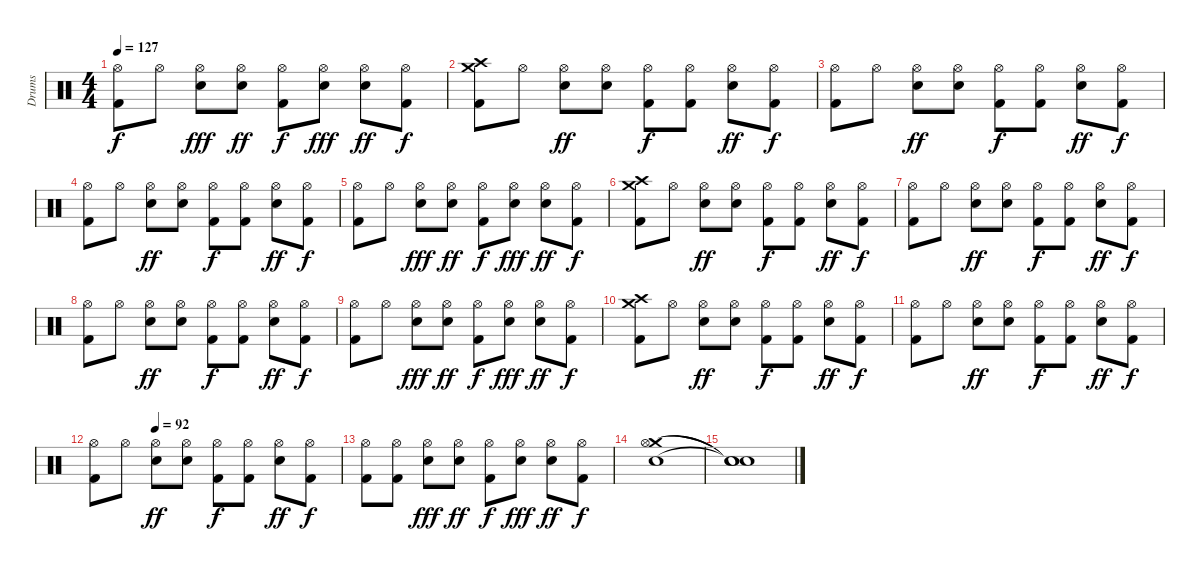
\track ("Drums" "Drums") {instrument percussion}
\staff {score}
\articulation defaults
\ts (4 4)
\tempo 127
\clef neutral
\ks c
("Hi-Hat (open)" "Kick (hit) 2").8{dy f} "Hi-Hat (open)".8 ("Hi-Hat (open)" "Electric Snare (hit)").8{dy fff} ("Hi-Hat (open)" "Electric Snare (hit)").8{dy ff} ("Hi-Hat (open)" "Kick (hit) 2").8{dy f} ("Hi-Hat (open)" "Electric Snare (hit)").8{dy fff} ("Hi-Hat (open)" "Electric Snare (hit)").8{dy ff} ("Hi-Hat (open)" "Kick (hit) 2").8{dy f} |
("Crash high (hit)" "Crash medium (hit)" "Kick (hit) 2").8 "Hi-Hat (open)".8 ("Hi-Hat (open)" "Electric Snare (hit)").8{dy ff} ("Hi-Hat (open)" "Electric Snare (hit)").8 ("Hi-Hat (open)" "Kick (hit) 2").8{dy f} ("Hi-Hat (open)" "Kick (hit) 2").8 ("Hi-Hat (open)" "Electric Snare (hit)").8{dy ff} ("Hi-Hat (open)" "Kick (hit) 2").8{dy f} |
("Hi-Hat (open)" "Kick (hit) 2").8 "Hi-Hat (open)".8 ("Hi-Hat (open)" "Electric Snare (hit)").8{dy ff} ("Hi-Hat (open)" "Electric Snare (hit)").8 ("Hi-Hat (open)" "Kick (hit) 2").8{dy f} ("Hi-Hat (open)" "Kick (hit) 2").8 ("Hi-Hat (open)" "Electric Snare (hit)").8{dy ff} ("Hi-Hat (open)" "Kick (hit) 2").8{dy f} |
("Hi-Hat (open)" "Kick (hit) 2").8 "Hi-Hat (open)".8 ("Hi-Hat (open)" "Electric Snare (hit)").8{dy ff} ("Hi-Hat (open)" "Electric Snare (hit)").8 ("Hi-Hat (open)" "Kick (hit) 2").8{dy f} ("Hi-Hat (open)" "Kick (hit) 2").8 ("Hi-Hat (open)" "Electric Snare (hit)").8{dy ff} ("Hi-Hat (open)" "Kick (hit) 2").8{dy f} |
("Hi-Hat (open)" "Kick (hit) 2").8 "Hi-Hat (open)".8 ("Hi-Hat (open)" "Electric Snare (hit)").8{dy fff} ("Hi-Hat (open)" "Electric Snare (hit)").8{dy ff} ("Hi-Hat (open)" "Kick (hit) 2").8{dy f} ("Hi-Hat (open)" "Electric Snare (hit)").8{dy fff} ("Hi-Hat (open)" "Electric Snare (hit)").8{dy ff} ("Hi-Hat (open)" "Kick (hit) 2").8{dy f} |
("Crash high (hit)" "Crash medium (hit)" "Kick (hit) 2").8 "Hi-Hat (open)".8 ("Hi-Hat (open)" "Electric Snare (hit)").8{dy ff} ("Hi-Hat (open)" "Electric Snare (hit)").8 ("Hi-Hat (open)" "Kick (hit) 2").8{dy f} ("Hi-Hat (open)" "Kick (hit) 2").8 ("Hi-Hat (open)" "Electric Snare (hit)").8{dy ff} ("Hi-Hat (open)" "Kick (hit) 2").8{dy f} |
("Hi-Hat (open)" "Kick (hit) 2").8 "Hi-Hat (open)".8 ("Hi-Hat (open)" "Electric Snare (hit)").8{dy ff} ("Hi-Hat (open)" "Electric Snare (hit)").8 ("Hi-Hat (open)" "Kick (hit) 2").8{dy f} ("Hi-Hat (open)" "Kick (hit) 2").8 ("Hi-Hat (open)" "Electric Snare (hit)").8{dy ff} ("Hi-Hat (open)" "Kick (hit) 2").8{dy f} |
("Hi-Hat (open)" "Kick (hit) 2").8 "Hi-Hat (open)".8 ("Hi-Hat (open)" "Electric Snare (hit)").8{dy ff} ("Hi-Hat (open)" "Electric Snare (hit)").8 ("Hi-Hat (open)" "Kick (hit) 2").8{dy f} ("Hi-Hat (open)" "Kick (hit) 2").8 ("Hi-Hat (open)" "Electric Snare (hit)").8{dy ff} ("Hi-Hat (open)" "Kick (hit) 2").8{dy f} |
("Hi-Hat (open)" "Kick (hit) 2").8 "Hi-Hat (open)".8 ("Hi-Hat (open)" "Electric Snare (hit)").8{dy fff} ("Hi-Hat (open)" "Electric Snare (hit)").8{dy ff} ("Hi-Hat (open)" "Kick (hit) 2").8{dy f} ("Hi-Hat (open)" "Electric Snare (hit)").8{dy fff} ("Hi-Hat (open)" "Electric Snare (hit)").8{dy ff} ("Hi-Hat (open)" "Kick (hit) 2").8{dy f} |
("Crash high (hit)" "Crash medium (hit)" "Kick (hit) 2").8 "Hi-Hat (open)".8 ("Hi-Hat (open)" "Electric Snare (hit)").8{dy ff} ("Hi-Hat (open)" "Electric Snare (hit)").8 ("Hi-Hat (open)" "Kick (hit) 2").8{dy f} ("Hi-Hat (open)" "Kick (hit) 2").8 ("Hi-Hat (open)" "Electric Snare (hit)").8{dy ff} ("Hi-Hat (open)" "Kick (hit) 2").8{dy f} |
("Hi-Hat (open)" "Kick (hit) 2").8 "Hi-Hat (open)".8 ("Hi-Hat (open)" "Electric Snare (hit)").8{dy ff} ("Hi-Hat (open)" "Electric Snare (hit)").8 ("Hi-Hat (open)" "Kick (hit) 2").8{dy f} ("Hi-Hat (open)" "Kick (hit) 2").8 ("Hi-Hat (open)" "Electric Snare (hit)").8{dy ff} ("Hi-Hat (open)" "Kick (hit) 2").8{dy f} |
\tempo (92 0.25)
("Hi-Hat (open)" "Kick (hit) 2").8 "Hi-Hat (open)".8 ("Hi-Hat (open)" "Electric Snare (hit)").8{dy ff} ("Hi-Hat (open)" "Electric Snare (hit)").8 ("Hi-Hat (open)" "Kick (hit) 2").8{dy f} ("Hi-Hat (open)" "Kick (hit) 2").8 ("Hi-Hat (open)" "Electric Snare (hit)").8{dy ff} ("Hi-Hat (open)" "Kick (hit) 2").8{dy f} |
("Hi-Hat (open)" "Kick (hit) 2").8 ("Hi-Hat (open)" "Kick (hit) 2").8 ("Hi-Hat (open)" "Electric Snare (hit)").8{dy fff} ("Hi-Hat (open)" "Electric Snare (hit)").8{dy ff} ("Hi-Hat (open)" "Kick (hit) 2").8{dy f} ("Hi-Hat (open)" "Electric Snare (hit)").8{dy fff} ("Hi-Hat (open)" "Electric Snare (hit)").8{dy ff} ("Hi-Hat (open)" "Kick (hit) 2").8{dy f} |
("Crash medium (hit)" "Hi-Hat (open)" "Electric Snare (hit)").1 |
("Snare (hit)"{t} "Snare (hit)"{t} "Snare (hit)"{t}).1
